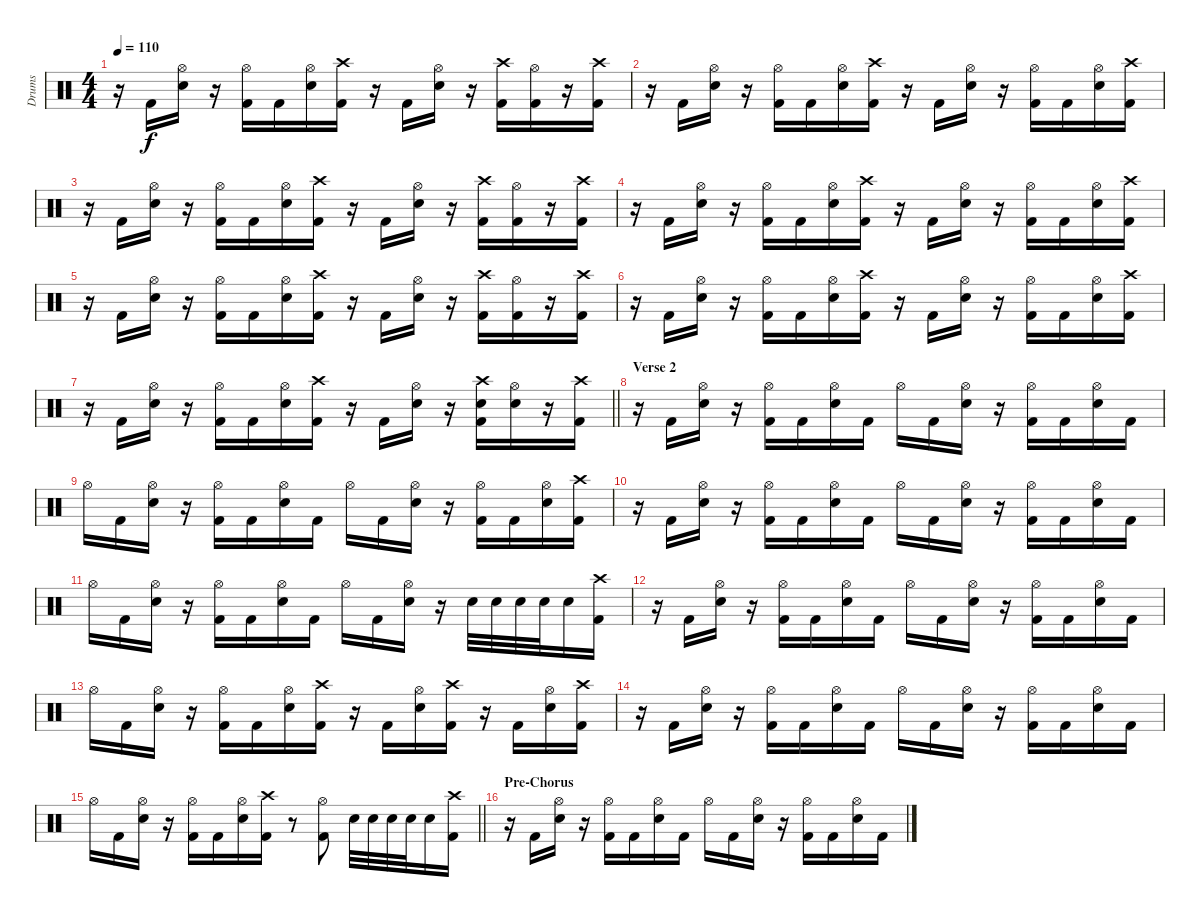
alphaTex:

\track ("Drums" "Drums") {instrument percussion}
\staff {score}
\articulation defaults
\ts (4 4)
\tempo 110
\clef neutral
\ks c
r.16{dy f} "Kick (hit) 2".16 ("Hi-Hat (open)" "Snare (hit) 2").16 r.16 ("Hi-Hat (open)" "Kick (hit) 2").16 "Kick (hit) 2".16 ("Hi-Hat (open)" "Snare (hit) 2").16 ("Crash high (hit)" "Kick (hit) 2").16 r.16 "Kick (hit) 2".16 ("Hi-Hat (open)" "Snare (hit) 2").16 r.16 ("Crash high (hit)" "Kick (hit) 2").16 ("Hi-Hat (open)" "Kick (hit) 2").16 r.16 ("Crash high (hit)" "Kick (hit) 2").16 |
r.16 "Kick (hit) 2".16 ("Hi-Hat (open)" "Snare (hit) 2").16 r.16 ("Hi-Hat (open)" "Kick (hit) 2").16 "Kick (hit) 2".16 ("Hi-Hat (open)" "Snare (hit) 2").16 ("Crash high (hit)" "Kick (hit) 2").16 r.16 "Kick (hit) 2".16 ("Hi-Hat (open)" "Snare (hit) 2").16 r.16 ("Hi-Hat (open)" "Kick (hit) 2").16 "Kick (hit) 2".16 ("Hi-Hat (open)" "Snare (hit) 2").16 ("Crash high (hit)" "Kick (hit) 2").16 |
r.16 "Kick (hit) 2".16 ("Hi-Hat (open)" "Snare (hit) 2").16 r.16 ("Hi-Hat (open)" "Kick (hit) 2").16 "Kick (hit) 2".16 ("Hi-Hat (open)" "Snare (hit) 2").16 ("Crash high (hit)" "Kick (hit) 2").16 r.16 "Kick (hit) 2".16 ("Hi-Hat (open)" "Snare (hit) 2").16 r.16 ("Crash high (hit)" "Kick (hit) 2").16 ("Hi-Hat (open)" "Kick (hit) 2").16 r.16 ("Crash high (hit)" "Kick (hit) 2").16 |
r.16 "Kick (hit) 2".16 ("Hi-Hat (open)" "Snare (hit) 2").16 r.16 ("Hi-Hat (open)" "Kick (hit) 2").16 "Kick (hit) 2".16 ("Hi-Hat (open)" "Snare (hit) 2").16 ("Crash high (hit)" "Kick (hit) 2").16 r.16 "Kick (hit) 2".16 ("Hi-Hat (open)" "Snare (hit) 2").16 r.16 ("Hi-Hat (open)" "Kick (hit) 2").16 "Kick (hit) 2".16 ("Hi-Hat (open)" "Snare (hit) 2").16 ("Crash high (hit)" "Kick (hit) 2").16 |
r.16 "Kick (hit) 2".16 ("Hi-Hat (open)" "Snare (hit) 2").16 r.16 ("Hi-Hat (open)" "Kick (hit) 2").16 "Kick (hit) 2".16 ("Hi-Hat (open)" "Snare (hit) 2").16 ("Crash high (hit)" "Kick (hit) 2").16 r.16 "Kick (hit) 2".16 ("Hi-Hat (open)" "Snare (hit) 2").16 r.16 ("Crash high (hit)" "Kick (hit) 2").16 ("Hi-Hat (open)" "Kick (hit) 2").16 r.16 ("Crash high (hit)" "Kick (hit) 2").16 |
r.16 "Kick (hit) 2".16 ("Hi-Hat (open)" "Snare (hit) 2").16 r.16 ("Hi-Hat (open)" "Kick (hit) 2").16 "Kick (hit) 2".16 ("Hi-Hat (open)" "Snare (hit) 2").16 ("Crash high (hit)" "Kick (hit) 2").16 r.16 "Kick (hit) 2".16 ("Hi-Hat (open)" "Snare (hit) 2").16 r.16 ("Hi-Hat (open)" "Kick (hit) 2").16 "Kick (hit) 2".16 ("Hi-Hat (open)" "Snare (hit) 2").16 ("Crash high (hit)" "Kick (hit) 2").16 |
\barLineRight lightlight
r.16 "Kick (hit) 2".16 ("Hi-Hat (open)" "Snare (hit) 2").16 r.16 ("Hi-Hat (open)" "Kick (hit) 2").16 "Kick (hit) 2".16 ("Hi-Hat (open)" "Snare (hit) 2").16 ("Crash high (hit)" "Kick (hit) 2").16 r.16 "Kick (hit) 2".16 ("Hi-Hat (open)" "Snare (hit) 2").16 r.16 ("Crash high (hit)" "Snare (hit) 2" "Kick (hit) 2").16 ("Hi-Hat (open)" "Snare (hit) 2").16 r.16 ("Crash high (hit)" "Kick (hit) 2").16 |
\section ("" "Verse 2")
r.16 "Kick (hit) 2".16 ("Hi-Hat (open)" "Snare (hit) 2").16 r.16 ("Hi-Hat (open)" "Kick (hit) 2").16 "Kick (hit) 2".16 ("Hi-Hat (open)" "Snare (hit) 2").16 "Kick (hit) 2".16 "Hi-Hat (open)".16 "Kick (hit) 2".16 ("Hi-Hat (open)" "Snare (hit) 2").16 r.16 ("Hi-Hat (open)" "Kick (hit) 2").16 "Kick (hit) 2".16 ("Hi-Hat (open)" "Snare (hit) 2").16 "Kick (hit) 2".16 |
"Hi-Hat (open)".16 "Kick (hit) 2".16 ("Hi-Hat (open)" "Snare (hit) 2").16 r.16 ("Hi-Hat (open)" "Kick (hit) 2").16 "Kick (hit) 2".16 ("Hi-Hat (open)" "Snare (hit) 2").16 "Kick (hit) 2".16 "Hi-Hat (open)".16 "Kick (hit) 2".16 ("Hi-Hat (open)" "Snare (hit) 2").16 r.16 ("Hi-Hat (open)" "Kick (hit) 2").16 "Kick (hit) 2".16 ("Hi-Hat (open)" "Snare (hit) 2").16 ("Crash high (hit)" "Kick (hit) 2").16 |
r.16 "Kick (hit) 2".16 ("Hi-Hat (open)" "Snare (hit) 2").16 r.16 ("Hi-Hat (open)" "Kick (hit) 2").16 "Kick (hit) 2".16 ("Hi-Hat (open)" "Snare (hit) 2").16 "Kick (hit) 2".16 "Hi-Hat (open)".16 "Kick (hit) 2".16 ("Hi-Hat (open)" "Snare (hit) 2").16 r.16 ("Hi-Hat (open)" "Kick (hit) 2").16 "Kick (hit) 2".16 ("Hi-Hat (open)" "Snare (hit) 2").16 "Kick (hit) 2".16 |
"Hi-Hat (open)".16 "Kick (hit) 2".16 ("Hi-Hat (open)" "Snare (hit) 2").16 r.16 ("Hi-Hat (open)" "Kick (hit) 2").16 "Kick (hit) 2".16 ("Hi-Hat (open)" "Snare (hit) 2").16 "Kick (hit) 2".16 "Hi-Hat (open)".16 "Kick (hit) 2".16 ("Hi-Hat (open)" "Snare (hit) 2").16 r.16 "Snare (hit) 2".32 "Snare (hit) 2".32 "Snare (hit) 2".32 "Snare (hit) 2".32 "Snare (hit) 2".16 ("Crash high (hit)" "Kick (hit) 2").16 |
r.16 "Kick (hit) 2".16 ("Hi-Hat (open)" "Snare (hit) 2").16 r.16 ("Hi-Hat (open)" "Kick (hit) 2").16 "Kick (hit) 2".16 ("Hi-Hat (open)" "Snare (hit) 2").16 "Kick (hit) 2".16 "Hi-Hat (open)".16 "Kick (hit) 2".16 ("Hi-Hat (open)" "Snare (hit) 2").16 r.16 ("Hi-Hat (open)" "Kick (hit) 2").16 "Kick (hit) 2".16 ("Hi-Hat (open)" "Snare (hit) 2").16 "Kick (hit) 2".16 |
"Hi-Hat (open)".16 "Kick (hit) 2".16 ("Hi-Hat (open)" "Snare (hit) 2").16 r.16 ("Hi-Hat (open)" "Kick (hit) 2").16 "Kick (hit) 2".16 ("Hi-Hat (open)" "Snare (hit) 2").16 ("Crash high (hit)" "Kick (hit) 2").16 r.16 "Kick (hit) 2".16 ("Hi-Hat (open)" "Snare (hit) 2").16 ("Crash high (hit)" "Kick (hit) 2").16 r.16 "Kick (hit) 2".16 ("Hi-Hat (open)" "Snare (hit) 2").16 ("Crash high (hit)" "Kick (hit) 2").16 |
r.16 "Kick (hit) 2".16 ("Hi-Hat (open)" "Snare (hit) 2").16 r.16 ("Hi-Hat (open)" "Kick (hit) 2").16 "Kick (hit) 2".16 ("Hi-Hat (open)" "Snare (hit) 2").16 "Kick (hit) 2".16 "Hi-Hat (open)".16 "Kick (hit) 2".16 ("Hi-Hat (open)" "Snare (hit) 2").16 r.16 ("Hi-Hat (open)" "Kick (hit) 2").16 "Kick (hit) 2".16 ("Hi-Hat (open)" "Snare (hit) 2").16 "Kick (hit) 2".16 |
\barLineRight lightlight "Hi-Hat (open)".16 "Kick (hit) 2".16
("Hi-Hat (open)" "Snare (hit) 2").16 r.16 ("Hi-Hat (open)" "Kick (hit) 2").16 "Kick (hit) 2".16 ("Hi-Hat (open)" "Snare (hit) 2").16 ("Crash high (hit)" "Kick (hit) 2").16 r.8 ("Hi-Hat (open)" "Kick (hit) 2").8 "Snare (hit) 2".32 "Snare (hit) 2".32 "Snare (hit) 2".32 "Snare (hit) 2".32 "Snare (hit) 2".16 ("Crash high (hit)" "Kick (hit) 2").16 |
\section ("" "Pre-Chorus")
r.16 "Kick (hit) 2".16 ("Hi-Hat (open)" "Snare (hit) 2").16 r.16 ("Hi-Hat (open)" "Kick (hit) 2").16 "Kick (hit) 2".16 ("Hi-Hat (open)" "Snare (hit) 2").16 "Kick (hit) 2".16 "Hi-Hat (open)".16 "Kick (hit) 2".16 ("Hi-Hat (open)" "Snare (hit) 2").16 r.16 ("Hi-Hat (open)" "Kick (hit) 2").16 "Kick (hit) 2".16 ("Hi-Hat (open)" "Snare (hit) 2").16 "Kick (hit) 2".16
